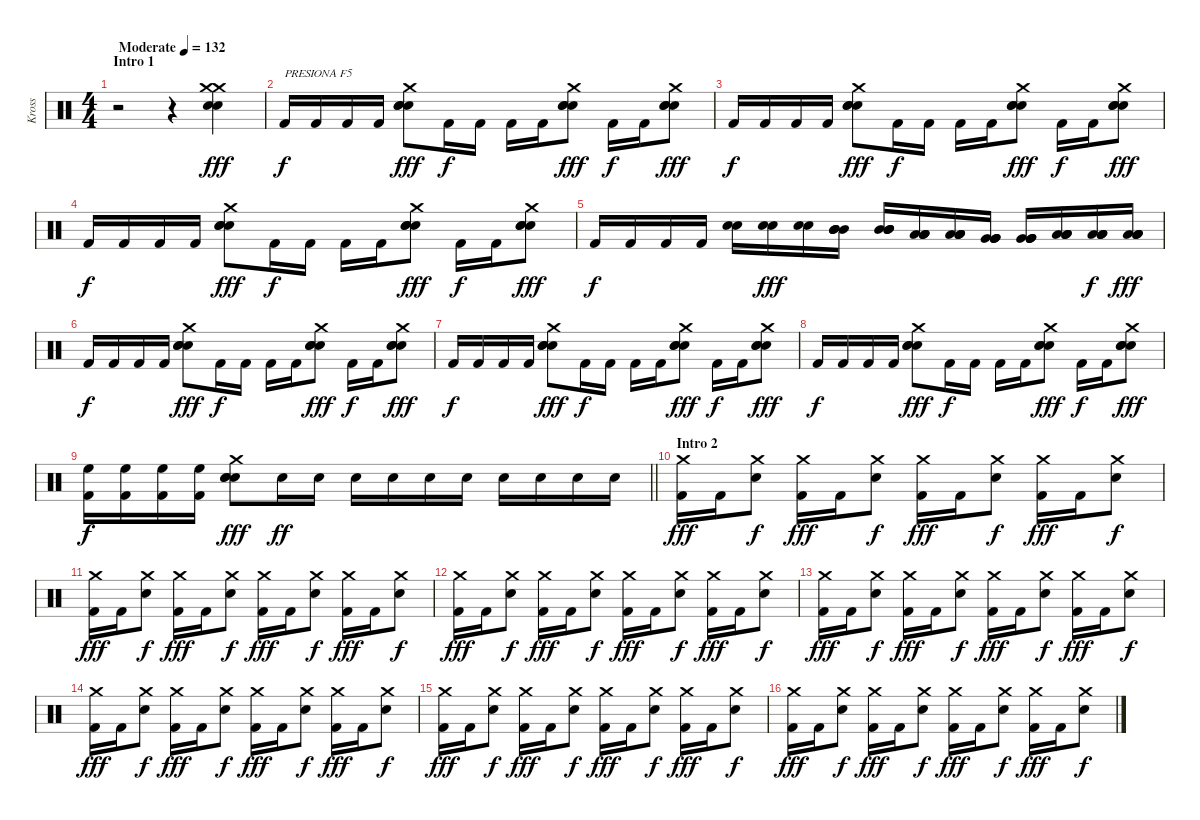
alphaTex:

\track ("Kross" "Kross") {instrument percussion}
\staff {score}
\articulation defaults
\ts (4 4)
\section ("" "Intro 1")
\tempo (132 "Moderate")
\clef neutral
\ks c
r.2{dy fff} r.4 ("Crash medium (hit)" "Crash medium (hit)" "Snare (hit) 2" "Snare (hit) 2").4 |
"Kick (hit) 2".16{txt "PRESIONA F5" dy f} "Kick (hit) 2".16 "Kick (hit) 2".16 "Kick (hit) 2".16 ("Crash medium (hit)" "Electric Snare (hit)" "Electric Snare (hit)" "Electric Snare (hit)").8{dy fff} "Kick (hit) 2".16{dy f} "Kick (hit) 2".16 "Kick (hit) 2".16 "Kick (hit) 2".16 ("Crash medium (hit)" "Electric Snare (hit)" "Electric Snare (hit)" "Electric Snare (hit)").8{dy fff} "Kick (hit) 2".16{dy f} "Kick (hit) 2".16 ("Crash medium (hit)" "Electric Snare (hit)" "Electric Snare (hit)" "Electric Snare (hit)").8{dy fff} |
"Kick (hit) 2".16{dy f} "Kick (hit) 2".16 "Kick (hit) 2".16 "Kick (hit) 2".16 ("Crash medium (hit)" "Electric Snare (hit)" "Electric Snare (hit)" "Electric Snare (hit)").8{dy fff} "Kick (hit) 2".16{dy f} "Kick (hit) 2".16 "Kick (hit) 2".16 "Kick (hit) 2".16 ("Crash medium (hit)" "Electric Snare (hit)" "Electric Snare (hit)" "Electric Snare (hit)").8{dy fff} "Kick (hit) 2".16{dy f} "Kick (hit) 2".16 ("Crash medium (hit)" "Electric Snare (hit)" "Electric Snare (hit)" "Electric Snare (hit)").8{dy fff} |
"Kick (hit) 2".16{dy f} "Kick (hit) 2".16 "Kick (hit) 2".16 "Kick (hit) 2".16 ("Crash medium (hit)" "Electric Snare (hit)" "Electric Snare (hit)" "Electric Snare (hit)").8{dy fff} "Kick (hit) 2".16{dy f} "Kick (hit) 2".16 "Kick (hit) 2".16 "Kick (hit) 2".16 ("Crash medium (hit)" "Electric Snare (hit)" "Electric Snare (hit)" "Electric Snare (hit)").8{dy fff} "Kick (hit) 2".16{dy f} "Kick (hit) 2".16 ("Crash medium (hit)" "Electric Snare (hit)" "Electric Snare (hit)" "Electric Snare (hit)").8{dy fff} |
"Kick (hit) 2".16{dy f} "Kick (hit) 2".16 "Kick (hit) 2".16 "Kick (hit) 2".16 ("Electric Snare (hit)" "Electric Snare (hit)").16 ("Electric Snare (hit)" "Electric Snare (hit)").16{dy fff} ("Electric Snare (hit)" "Electric Snare (hit)").16 ("Mid Tom (hit)" "Mid Tom (hit)" "Mid Tom (hit)" "Mid Tom (hit)").16 ("Mid Tom (hit)" "Mid Tom (hit)" "Mid Tom (hit)" "Mid Tom (hit)").16 ("Low Tom (hit)" "Low Tom (hit)" "Low Tom (hit)" "Low Tom (hit)").16 ("Low Tom (hit)" "Low Tom (hit)" "Low Tom (hit)" "Low Tom (hit)").16 ("Very Low Tom (hit)" "Very Low Tom (hit)" "Very Low Tom (hit)" "Very Low Tom (hit)").16 ("Very Low Tom (hit)" "Very Low Tom (hit)" "Very Low Tom (hit)" "Very Low Tom (hit)").16 ("Low Floor Tom (hit)" "Low Floor Tom (hit)" "Low Floor Tom (hit)" "Low Floor Tom (hit)").16 ("Low Floor Tom (hit)" "Low Floor Tom (hit)" "Low Floor Tom (hit)" "Low Floor Tom (hit)").16{dy f} ("Low Floor Tom (hit)" "Low Floor Tom (hit)" "Low Floor Tom (hit)" "Low Floor Tom (hit)").16{dy fff} |
"Kick (hit) 2".16{dy f} "Kick (hit) 2".16 "Kick (hit) 2".16 "Kick (hit) 2".16 ("Crash medium (hit)" "Electric Snare (hit)" "Electric Snare (hit)" "Electric Snare (hit)").8{dy fff} "Kick (hit) 2".16{dy f} "Kick (hit) 2".16 "Kick (hit) 2".16 "Kick (hit) 2".16 ("Crash medium (hit)" "Electric Snare (hit)" "Electric Snare (hit)" "Electric Snare (hit)").8{dy fff} "Kick (hit) 2".16{dy f} "Kick (hit) 2".16 ("Crash medium (hit)" "Electric Snare (hit)" "Electric Snare (hit)" "Electric Snare (hit)").8{dy fff} |
"Kick (hit) 2".16{dy f} "Kick (hit) 2".16 "Kick (hit) 2".16 "Kick (hit) 2".16 ("Crash medium (hit)" "Electric Snare (hit)" "Electric Snare (hit)" "Electric Snare (hit)").8{dy fff} "Kick (hit) 2".16{dy f} "Kick (hit) 2".16 "Kick (hit) 2".16 "Kick (hit) 2".16 ("Crash medium (hit)" "Electric Snare (hit)" "Electric Snare (hit)" "Electric Snare (hit)").8{dy fff} "Kick (hit) 2".16{dy f} "Kick (hit) 2".16 ("Crash medium (hit)" "Electric Snare (hit)" "Electric Snare (hit)" "Electric Snare (hit)").8{dy fff} |
"Kick (hit) 2".16{dy f} "Kick (hit) 2".16 "Kick (hit) 2".16 "Kick (hit) 2".16 ("Crash medium (hit)" "Electric Snare (hit)" "Electric Snare (hit)" "Electric Snare (hit)").8{dy fff} "Kick (hit) 2".16{dy f} "Kick (hit) 2".16 "Kick (hit) 2".16 "Kick (hit) 2".16 ("Crash medium (hit)" "Electric Snare (hit)" "Electric Snare (hit)" "Electric Snare (hit)").8{dy fff} "Kick (hit) 2".16{dy f} "Kick (hit) 2".16 ("Crash medium (hit)" "Electric Snare (hit)" "Electric Snare (hit)" "Electric Snare (hit)").8{dy fff} |
\barLineRight lightlight
("High Floor Tom (hit)" "Kick (hit) 2").16{dy f} ("High Floor Tom (hit)" "Kick (hit) 2").16 ("High Floor Tom (hit)" "Kick (hit) 2").16 ("High Floor Tom (hit)" "Kick (hit) 2").16 ("Crash medium (hit)" "Electric Snare (hit)" "Electric Snare (hit)" "Electric Snare (hit)").8{dy fff} "Electric Snare (hit)".16{dy ff} "Electric Snare (hit)".16 "Electric Snare (hit)".16 "Electric Snare (hit)".16 "Electric Snare (hit)".16 "Electric Snare (hit)".16 "Electric Snare (hit)".16 "Electric Snare (hit)".16 "Electric Snare (hit)".16 "Electric Snare (hit)".16 |
\section ("" "Intro 2")
("Kick (hit) 2" "Crash medium (hit)").16{dy fff} "Kick (hit) 2".16 ("Crash medium (hit)" "Electric Snare (hit)").8{dy f} ("Kick (hit) 2" "Crash medium (hit)").16{dy fff} "Kick (hit) 2".16 ("Crash medium (hit)" "Electric Snare (hit)").8{dy f} ("Kick (hit) 2" "Crash medium (hit)").16{dy fff} "Kick (hit) 2".16 ("Crash medium (hit)" "Electric Snare (hit)").8{dy f} ("Kick (hit) 2" "Crash medium (hit)").16{dy fff} "Kick (hit) 2".16 ("Crash medium (hit)" "Electric Snare (hit)").8{dy f} |
("Kick (hit) 2" "Crash medium (hit)").16{dy fff} "Kick (hit) 2".16 ("Crash medium (hit)" "Electric Snare (hit)").8{dy f} ("Kick (hit) 2" "Crash medium (hit)").16{dy fff} "Kick (hit) 2".16 ("Crash medium (hit)" "Electric Snare (hit)").8{dy f} ("Kick (hit) 2" "Crash medium (hit)").16{dy fff} "Kick (hit) 2".16 ("Crash medium (hit)" "Electric Snare (hit)").8{dy f} ("Kick (hit) 2" "Crash medium (hit)").16{dy fff} "Kick (hit) 2".16 ("Crash medium (hit)" "Electric Snare (hit)").8{dy f} |
("Kick (hit) 2" "Crash medium (hit)").16{dy fff} "Kick (hit) 2".16 ("Crash medium (hit)" "Electric Snare (hit)").8{dy f} ("Kick (hit) 2" "Crash medium (hit)").16{dy fff} "Kick (hit) 2".16 ("Crash medium (hit)" "Electric Snare (hit)").8{dy f} ("Kick (hit) 2" "Crash medium (hit)").16{dy fff} "Kick (hit) 2".16 ("Crash medium (hit)" "Electric Snare (hit)").8{dy f} ("Kick (hit) 2" "Crash medium (hit)").16{dy fff} "Kick (hit) 2".16 ("Crash medium (hit)" "Electric Snare (hit)").8{dy f} |
("Kick (hit) 2" "Crash medium (hit)").16{dy fff} "Kick (hit) 2".16 ("Crash medium (hit)" "Electric Snare (hit)").8{dy f} ("Kick (hit) 2" "Crash medium (hit)").16{dy fff} "Kick (hit) 2".16 ("Crash medium (hit)" "Electric Snare (hit)").8{dy f} ("Kick (hit) 2" "Crash medium (hit)").16{dy fff} "Kick (hit) 2".16 ("Crash medium (hit)" "Electric Snare (hit)").8{dy f} ("Kick (hit) 2" "Crash medium (hit)").16{dy fff} "Kick (hit) 2".16 ("Crash medium (hit)" "Electric Snare (hit)").8{dy f} |
("Kick (hit) 2" "Crash medium (hit)").16{dy fff} "Kick (hit) 2".16 ("Crash medium (hit)" "Electric Snare (hit)").8{dy f} ("Kick (hit) 2" "Crash medium (hit)").16{dy fff} "Kick (hit) 2".16 ("Crash medium (hit)" "Electric Snare (hit)").8{dy f} ("Kick (hit) 2" "Crash medium (hit)").16{dy fff} "Kick (hit) 2".16 ("Crash medium (hit)" "Electric Snare (hit)").8{dy f} ("Kick (hit) 2" "Crash medium (hit)").16{dy fff} "Kick (hit) 2".16 ("Crash medium (hit)" "Electric Snare (hit)").8{dy f} |
("Kick (hit) 2" "Crash medium (hit)").16{dy fff} "Kick (hit) 2".16 ("Crash medium (hit)" "Electric Snare (hit)").8{dy f} ("Kick (hit) 2" "Crash medium (hit)").16{dy fff} "Kick (hit) 2".16 ("Crash medium (hit)" "Electric Snare (hit)").8{dy f} ("Kick (hit) 2" "Crash medium (hit)").16{dy fff} "Kick (hit) 2".16 ("Crash medium (hit)" "Electric Snare (hit)").8{dy f} ("Kick (hit) 2" "Crash medium (hit)").16{dy fff} "Kick (hit) 2".16 ("Crash medium (hit)" "Electric Snare (hit)").8{dy f} |
("Kick (hit) 2" "Crash medium (hit)").16{dy fff} "Kick (hit) 2".16 ("Crash medium (hit)" "Electric Snare (hit)").8{dy f} ("Kick (hit) 2" "Crash medium (hit)").16{dy fff} "Kick (hit) 2".16 ("Crash medium (hit)" "Electric Snare (hit)").8{dy f} ("Kick (hit) 2" "Crash medium (hit)").16{dy fff} "Kick (hit) 2".16 ("Crash medium (hit)" "Electric Snare (hit)").8{dy f} ("Kick (hit) 2" "Crash medium (hit)").16{dy fff} "Kick (hit) 2".16 ("Crash medium (hit)" "Electric Snare (hit)").8{dy f}
